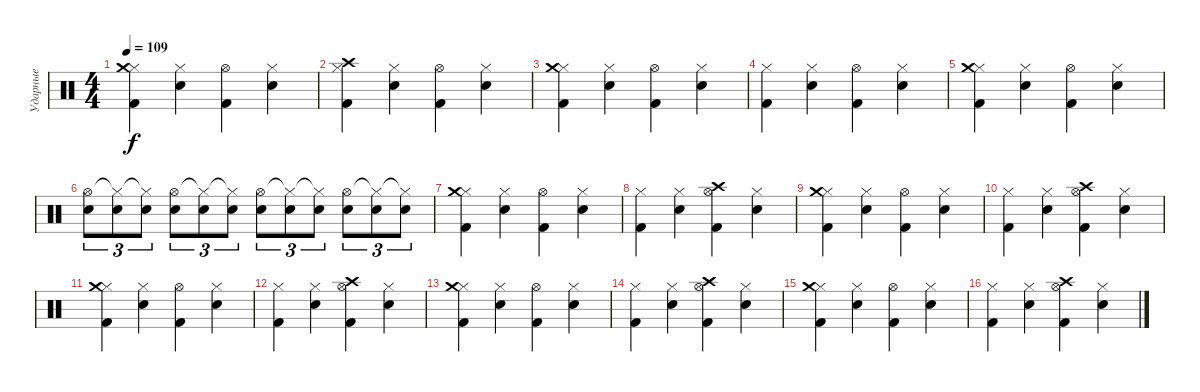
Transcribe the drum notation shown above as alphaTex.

\track ("Ударные" "Ударные") {instrument percussion}
\staff {score}
\articulation defaults
\ts (4 4)
\tempo 109
\clef neutral
\ks c
("Hi-Hat (closed)" "Crash medium (hit)" "Kick (hit) 2").4{dy f} ("Hi-Hat (closed)" "Snare (hit) 2").4 ("Hi-Hat (open)" "Kick (hit) 2").4 ("Hi-Hat (closed)" "Snare (hit) 2").4 |
("Hi-Hat (closed)" "Kick (hit) 2" "Crash high (hit)").4 ("Hi-Hat (closed)" "Snare (hit) 2").4 ("Hi-Hat (open)" "Kick (hit) 2").4 ("Hi-Hat (closed)" "Snare (hit) 2").4 |
("Hi-Hat (closed)" "Crash medium (hit)" "Kick (hit) 2").4 ("Hi-Hat (closed)" "Snare (hit) 2").4 ("Hi-Hat (open)" "Kick (hit) 2").4 ("Hi-Hat (closed)" "Snare (hit) 2").4 |
("Hi-Hat (closed)" "Kick (hit) 2").4 ("Hi-Hat (closed)" "Snare (hit) 2").4 ("Hi-Hat (open)" "Kick (hit) 2").4 ("Hi-Hat (closed)" "Snare (hit) 2").4 |
("Hi-Hat (closed)" "Crash medium (hit)" "Kick (hit) 2").4 ("Hi-Hat (closed)" "Snare (hit) 2").4 ("Hi-Hat (open)" "Kick (hit) 2").4 ("Hi-Hat (closed)" "Snare (hit) 2").4 |
("Snare (hit) 2" "Hi-Hat (open)").8{tu (3 2)} ("Snare (hit) 2" "Hi-Hat (closed)"{t}).8{tu (3 2)} ("Snare (hit) 2" "Hi-Hat (closed)"{t}).8{tu (3 2)} ("Snare (hit) 2" "Hi-Hat (open)").8{tu (3 2)} ("Snare (hit) 2" "Hi-Hat (closed)"{t}).8{tu (3 2)} ("Snare (hit) 2" "Hi-Hat (closed)"{t}).8{tu (3 2)} ("Snare (hit) 2" "Hi-Hat (open)").8{tu (3 2)} ("Snare (hit) 2" "Hi-Hat (closed)"{t}).8{tu (3 2)} ("Snare (hit) 2" "Hi-Hat (closed)"{t}).8{tu (3 2)} ("Snare (hit) 2" "Hi-Hat (open)").8{tu (3 2)} ("Snare (hit) 2" "Hi-Hat (closed)"{t}).8{tu (3 2)} ("Snare (hit) 2" "Hi-Hat (closed)"{t}).8{tu (3 2)} |
("Hi-Hat (closed)" "Kick (hit) 2" "Crash medium (hit)").4 ("Hi-Hat (closed)" "Snare (hit) 2").4 ("Hi-Hat (open)" "Kick (hit) 2").4 ("Hi-Hat (closed)" "Snare (hit) 2").4 |
("Hi-Hat (closed)" "Kick (hit) 2").4 ("Hi-Hat (closed)" "Snare (hit) 2").4 ("Hi-Hat (open)" "Crash high (hit)" "Kick (hit) 2").4 ("Hi-Hat (closed)" "Snare (hit) 2").4 |
("Hi-Hat (closed)" "Kick (hit) 2" "Crash medium (hit)").4 ("Hi-Hat (closed)" "Snare (hit) 2").4 ("Hi-Hat (open)" "Kick (hit) 2").4 ("Hi-Hat (closed)" "Snare (hit) 2").4 |
("Hi-Hat (closed)" "Kick (hit) 2").4 ("Hi-Hat (closed)" "Snare (hit) 2").4 ("Hi-Hat (open)" "Crash high (hit)" "Kick (hit) 2").4 ("Hi-Hat (closed)" "Snare (hit) 2").4 |
("Hi-Hat (closed)" "Kick (hit) 2" "Crash medium (hit)").4 ("Hi-Hat (closed)" "Snare (hit) 2").4 ("Hi-Hat (open)" "Kick (hit) 2").4 ("Hi-Hat (closed)" "Snare (hit) 2").4 |
("Hi-Hat (closed)" "Kick (hit) 2").4 ("Hi-Hat (closed)" "Snare (hit) 2").4 ("Hi-Hat (open)" "Crash high (hit)" "Kick (hit) 2").4 ("Hi-Hat (closed)" "Snare (hit) 2").4 |
("Hi-Hat (closed)" "Kick (hit) 2" "Crash medium (hit)").4 ("Hi-Hat (closed)" "Snare (hit) 2").4 ("Hi-Hat (open)" "Kick (hit) 2").4 ("Hi-Hat (closed)" "Snare (hit) 2").4 |
("Hi-Hat (closed)" "Kick (hit) 2").4 ("Hi-Hat (closed)" "Snare (hit) 2").4 ("Hi-Hat (open)" "Crash high (hit)" "Kick (hit) 2").4 ("Hi-Hat (closed)" "Snare (hit) 2").4 |
("Hi-Hat (closed)" "Kick (hit) 2" "Crash medium (hit)").4 ("Hi-Hat (closed)" "Snare (hit) 2").4 ("Hi-Hat (open)" "Kick (hit) 2").4 ("Hi-Hat (closed)" "Snare (hit) 2").4 |
("Hi-Hat (closed)" "Kick (hit) 2").4 ("Hi-Hat (closed)" "Snare (hit) 2").4 ("Hi-Hat (open)" "Crash high (hit)" "Kick (hit) 2").4 ("Hi-Hat (closed)" "Snare (hit) 2").4
